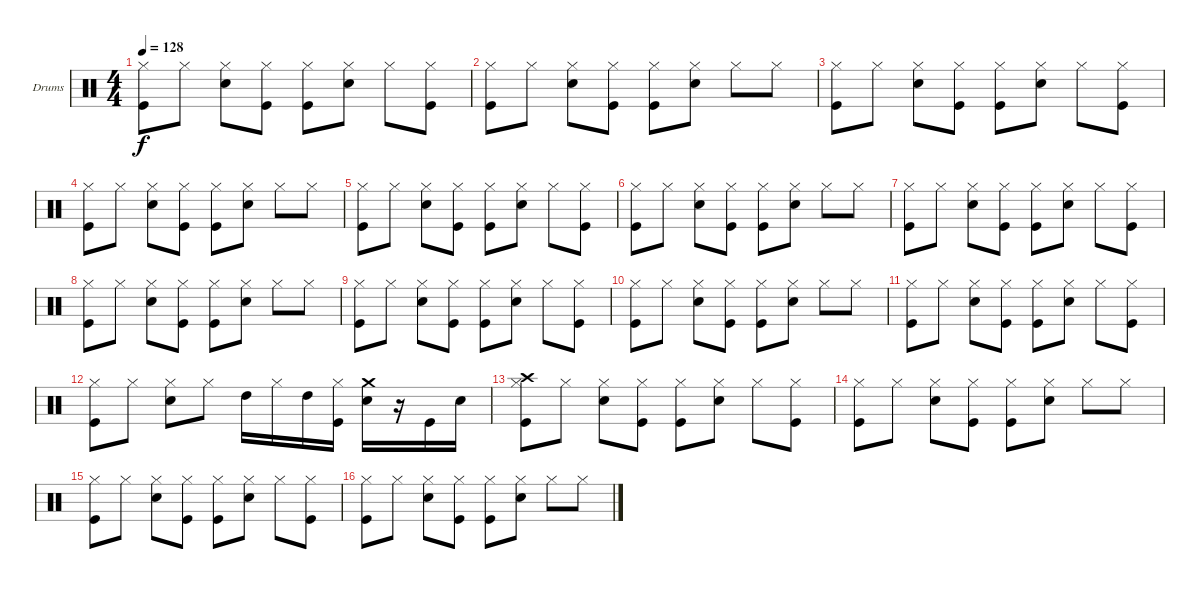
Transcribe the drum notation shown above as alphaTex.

\bracketExtendMode groupsimilarinstruments
\firstSystemTrackNameOrientation horizontal
\otherSystemsTrackNameOrientation horizontal
\track ("Drumkit (Christoph)" "Drums") {instrument percussion}
\staff {score}
\articulation defaults
\ts (4 4)
\tempo 128
\clef neutral
\ks c
("Kick (hit)" "Hi-Hat (closed)").8{dy f} "Hi-Hat (closed)".8 ("Snare (hit) 2" "Hi-Hat (closed)").8 ("Kick (hit)" "Hi-Hat (closed)").8 ("Kick (hit)" "Hi-Hat (closed)").8 ("Snare (hit) 2" "Hi-Hat (closed)").8 "Hi-Hat (closed)".8 ("Kick (hit)" "Hi-Hat (closed)").8 |
("Kick (hit)" "Hi-Hat (closed)").8 "Hi-Hat (closed)".8 ("Snare (hit) 2" "Hi-Hat (closed)").8 ("Kick (hit)" "Hi-Hat (closed)").8 ("Kick (hit)" "Hi-Hat (closed)").8 ("Snare (hit) 2" "Hi-Hat (closed)").8 "Hi-Hat (closed)".8 "Hi-Hat (closed)".8 |
("Kick (hit)" "Hi-Hat (closed)").8 "Hi-Hat (closed)".8 ("Snare (hit) 2" "Hi-Hat (closed)").8 ("Kick (hit)" "Hi-Hat (closed)").8 ("Kick (hit)" "Hi-Hat (closed)").8 ("Snare (hit) 2" "Hi-Hat (closed)").8 "Hi-Hat (closed)".8 ("Kick (hit)" "Hi-Hat (closed)").8 |
("Kick (hit)" "Hi-Hat (closed)").8 "Hi-Hat (closed)".8 ("Snare (hit) 2" "Hi-Hat (closed)").8 ("Kick (hit)" "Hi-Hat (closed)").8 ("Kick (hit)" "Hi-Hat (closed)").8 ("Snare (hit) 2" "Hi-Hat (closed)").8 "Hi-Hat (closed)".8 "Hi-Hat (closed)".8 |
("Kick (hit)" "Hi-Hat (closed)").8 "Hi-Hat (closed)".8 ("Snare (hit) 2" "Hi-Hat (closed)").8 ("Kick (hit)" "Hi-Hat (closed)").8 ("Kick (hit)" "Hi-Hat (closed)").8 ("Snare (hit) 2" "Hi-Hat (closed)").8 "Hi-Hat (closed)".8 ("Kick (hit)" "Hi-Hat (closed)").8 |
("Kick (hit)" "Hi-Hat (closed)").8 "Hi-Hat (closed)".8 ("Snare (hit) 2" "Hi-Hat (closed)").8 ("Kick (hit)" "Hi-Hat (closed)").8 ("Kick (hit)" "Hi-Hat (closed)").8 ("Snare (hit) 2" "Hi-Hat (closed)").8 "Hi-Hat (closed)".8 "Hi-Hat (closed)".8 |
("Kick (hit)" "Hi-Hat (closed)").8 "Hi-Hat (closed)".8 ("Snare (hit) 2" "Hi-Hat (closed)").8 ("Kick (hit)" "Hi-Hat (closed)").8 ("Kick (hit)" "Hi-Hat (closed)").8 ("Snare (hit) 2" "Hi-Hat (closed)").8 "Hi-Hat (closed)".8 ("Kick (hit)" "Hi-Hat (closed)").8 |
("Kick (hit)" "Hi-Hat (closed)").8 "Hi-Hat (closed)".8 ("Snare (hit) 2" "Hi-Hat (closed)").8 ("Kick (hit)" "Hi-Hat (closed)").8 ("Kick (hit)" "Hi-Hat (closed)").8 ("Snare (hit) 2" "Hi-Hat (closed)").8 "Hi-Hat (closed)".8 "Hi-Hat (closed)".8 |
("Kick (hit)" "Hi-Hat (closed)").8 "Hi-Hat (closed)".8 ("Snare (hit) 2" "Hi-Hat (closed)").8 ("Kick (hit)" "Hi-Hat (closed)").8 ("Kick (hit)" "Hi-Hat (closed)").8 ("Snare (hit) 2" "Hi-Hat (closed)").8 "Hi-Hat (closed)".8 ("Kick (hit)" "Hi-Hat (closed)").8 |
("Kick (hit)" "Hi-Hat (closed)").8 "Hi-Hat (closed)".8 ("Snare (hit) 2" "Hi-Hat (closed)").8 ("Kick (hit)" "Hi-Hat (closed)").8 ("Kick (hit)" "Hi-Hat (closed)").8 ("Snare (hit) 2" "Hi-Hat (closed)").8 "Hi-Hat (closed)".8 "Hi-Hat (closed)".8 |
("Kick (hit)" "Hi-Hat (closed)").8 "Hi-Hat (closed)".8 ("Snare (hit) 2" "Hi-Hat (closed)").8 ("Kick (hit)" "Hi-Hat (closed)").8 ("Kick (hit)" "Hi-Hat (closed)").8 ("Snare (hit) 2" "Hi-Hat (closed)").8 "Hi-Hat (closed)".8 ("Kick (hit)" "Hi-Hat (closed)").8 |
("Kick (hit)" "Hi-Hat (closed)").8 "Hi-Hat (closed)".8 ("Snare (hit) 2" "Hi-Hat (closed)").8 "Hi-Hat (closed)".8 "High Tom (hit)".16 "Hi-Hat (closed)".16 "High Tom (hit)".16 ("Kick (hit)" "Hi-Hat (closed)").16 ("Snare (hit) 2" "Crash medium (hit)").16 r.16 "Kick (hit)".16 "Snare (hit) 2".16 |
("Kick (hit)" "Crash high (hit)" "Hi-Hat (closed)").8 "Hi-Hat (closed)".8 ("Snare (hit) 2" "Hi-Hat (closed)").8 ("Kick (hit)" "Hi-Hat (closed)").8 ("Kick (hit)" "Hi-Hat (closed)").8 ("Snare (hit) 2" "Hi-Hat (closed)").8 "Hi-Hat (closed)".8 ("Kick (hit)" "Hi-Hat (closed)").8 |
("Kick (hit)" "Hi-Hat (closed)").8 "Hi-Hat (closed)".8 ("Snare (hit) 2" "Hi-Hat (closed)").8 ("Kick (hit)" "Hi-Hat (closed)").8 ("Kick (hit)" "Hi-Hat (closed)").8 ("Snare (hit) 2" "Hi-Hat (closed)").8 "Hi-Hat (closed)".8 "Hi-Hat (closed)".8 |
("Kick (hit)" "Hi-Hat (closed)").8 "Hi-Hat (closed)".8 ("Snare (hit) 2" "Hi-Hat (closed)").8 ("Kick (hit)" "Hi-Hat (closed)").8 ("Kick (hit)" "Hi-Hat (closed)").8 ("Snare (hit) 2" "Hi-Hat (closed)").8 "Hi-Hat (closed)".8 ("Kick (hit)" "Hi-Hat (closed)").8 |
("Kick (hit)" "Hi-Hat (closed)").8 "Hi-Hat (closed)".8 ("Snare (hit) 2" "Hi-Hat (closed)").8 ("Kick (hit)" "Hi-Hat (closed)").8 ("Kick (hit)" "Hi-Hat (closed)").8 ("Snare (hit) 2" "Hi-Hat (closed)").8 "Hi-Hat (closed)".8 "Hi-Hat (closed)".8
